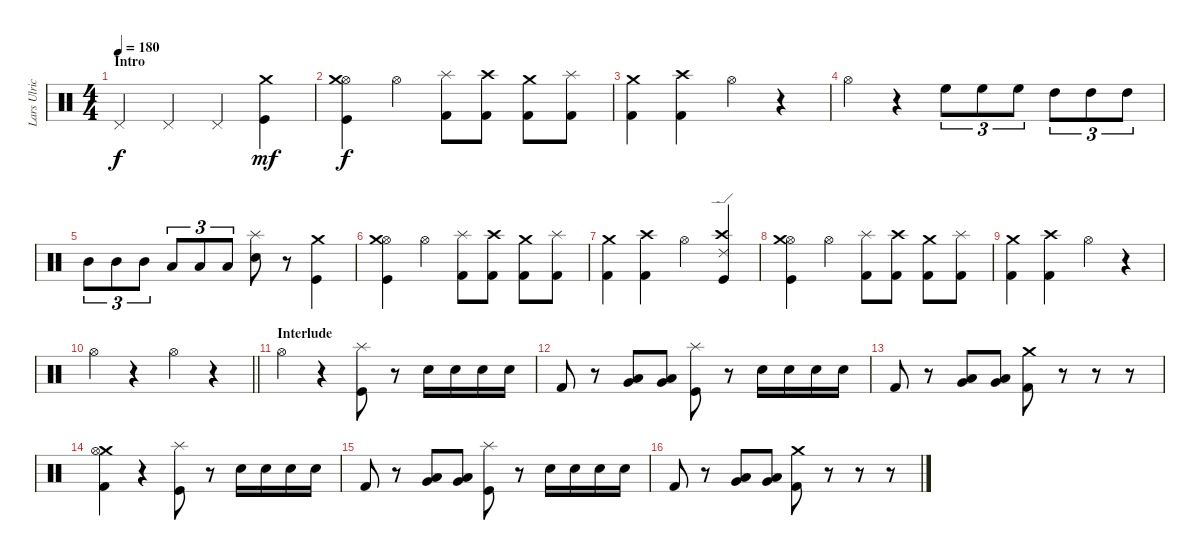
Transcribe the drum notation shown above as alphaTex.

\track ("Lars Ulrich" "Lars Ulric") {instrument percussion}
\staff {score}
\articulation defaults
\ts (4 4)
\section ("" "Intro")
\tempo 180
\clef neutral
\ks c "Pedal Hi-Hat (hit)".4{dy f} "Pedal Hi-Hat (hit)".4 "Pedal Hi-Hat (hit)".4
("Crash medium (hit)" "Kick (hit)").4{dy mf} |
("Hi-Hat (open)" "Crash medium (hit)" "Kick (hit)").4{dy f} "Hi-Hat (open)".4 ("Splash (hit)" "Kick (hit) 2").8 ("Crash high (hit)" "Kick (hit) 2").8 ("Crash medium (hit)" "Kick (hit) 2").8 ("Splash (hit)" "Kick (hit) 2").8 |
("Crash medium (hit)" "Kick (hit) 2").4 ("Crash high (hit)" "Kick (hit) 2").4 "Hi-Hat (open)".4 r.4 |
"Hi-Hat (open)".4 r.4 "High Floor Tom (hit)".8{tu (3 2)} "High Floor Tom (hit)".8{tu (3 2)} "High Floor Tom (hit)".8{tu (3 2)} "High Tom (hit)".8{tu (3 2)} "High Tom (hit)".8{tu (3 2)} "High Tom (hit)".8{tu (3 2)} |
"Mid Tom (hit)".8{tu (3 2)} "Mid Tom (hit)".8{tu (3 2)} "Mid Tom (hit)".8{tu (3 2)} "Low Tom (hit)".8{tu (3 2)} "Low Tom (hit)".8{tu (3 2)} "Low Tom (hit)".8{tu (3 2)} ("Splash (hit)" "Electric Snare (hit)").8 r.8 ("Crash medium (hit)" "Kick (hit)").4 |
("Hi-Hat (open)" "Crash medium (hit)" "Kick (hit)").4 "Hi-Hat (open)".4 ("Splash (hit)" "Kick (hit) 2").8 ("Crash high (hit)" "Kick (hit) 2").8 ("Crash medium (hit)" "Kick (hit) 2").8 ("Splash (hit)" "Kick (hit) 2").8 |
("Crash medium (hit)" "Kick (hit) 2").4 ("Crash high (hit)" "Kick (hit) 2").4 "Hi-Hat (open)".4 ("Crash high (hit)" "Ride (edge) 2" "Kick (hit)").4 |
("Hi-Hat (open)" "Crash medium (hit)" "Kick (hit)").4 "Hi-Hat (open)".4 ("Splash (hit)" "Kick (hit) 2").8 ("Crash high (hit)" "Kick (hit) 2").8 ("Crash medium (hit)" "Kick (hit) 2").8 ("Splash (hit)" "Kick (hit) 2").8 |
("Crash medium (hit)" "Kick (hit) 2").4 ("Crash high (hit)" "Kick (hit) 2").4 "Hi-Hat (open)".4 r.4 |
\barLineRight lightlight "Hi-Hat (open)".4
r.4 "Hi-Hat (open)".4 r.4 |
\section ("" "Interlude")
"Hi-Hat (open)".4 r.4 ("Splash (hit)" "Kick (hit)").8 r.8 "Electric Snare (hit)".16 "Electric Snare (hit)".16 "Electric Snare (hit)".16 "Electric Snare (hit)".16 |
"Kick (hit) 2".8 r.8 ("Very Low Tom (hit)" "Low Tom (hit)").8 ("Very Low Tom (hit)" "Low Tom (hit)").8 ("Splash (hit)" "Kick (hit)").8 r.8 "Electric Snare (hit)".16 "Electric Snare (hit)".16 "Electric Snare (hit)".16 "Electric Snare (hit)".16 |
"Kick (hit) 2".8 r.8 ("Very Low Tom (hit)" "Low Tom (hit)").8 ("Very Low Tom (hit)" "Low Tom (hit)").8 ("Crash medium (hit)" "Kick (hit) 2").8 r.8 r.8 r.8 |
("Crash medium (hit)" "Hi-Hat (open)" "Kick (hit) 2").4 r.4 ("Splash (hit)" "Kick (hit)").8 r.8 "Electric Snare (hit)".16 "Electric Snare (hit)".16 "Electric Snare (hit)".16 "Electric Snare (hit)".16 |
"Kick (hit) 2".8 r.8 ("Very Low Tom (hit)" "Low Tom (hit)").8 ("Very Low Tom (hit)" "Low Tom (hit)").8 ("Splash (hit)" "Kick (hit)").8 r.8 "Electric Snare (hit)".16 "Electric Snare (hit)".16 "Electric Snare (hit)".16 "Electric Snare (hit)".16 |
"Kick (hit) 2".8 r.8 ("Very Low Tom (hit)" "Low Tom (hit)").8 ("Very Low Tom (hit)" "Low Tom (hit)").8 ("Crash medium (hit)" "Kick (hit) 2").8 r.8 r.8 r.8
